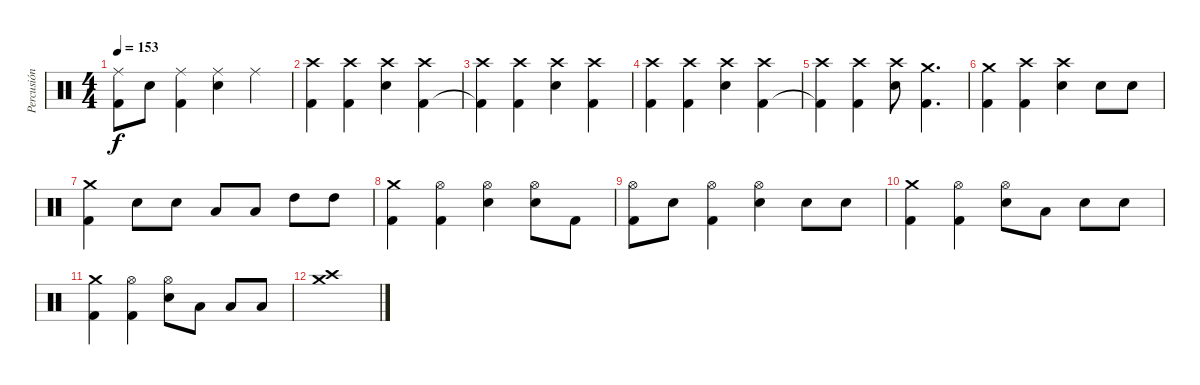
\track ("Percusión" "Percusión") {instrument percussion}
\staff {score}
\articulation defaults
\ts (4 4)
\tempo 153
\clef neutral
\ks c
("Ride (middle)" "Kick (hit) 2").8{dy f} "Electric Snare (hit)".8 ("Ride (middle)" "Kick (hit) 2").4 ("Ride (middle)" "Electric Snare (hit)").4 "Ride (middle)".4 |
("Kick (hit) 2" "Crash high (hit)").4 ("Kick (hit) 2" "Crash high (hit)").4 ("Electric Snare (hit)" "Crash high (hit)").4 ("Kick (hit) 2" "Crash high (hit)").4 |
("Kick (hit) 2"{t} "Crash high (hit)").4 ("Kick (hit) 2" "Crash high (hit)").4 ("Electric Snare (hit)" "Crash high (hit)").4 ("Kick (hit) 2" "Crash high (hit)").4 |
("Kick (hit) 2" "Crash high (hit)").4 ("Kick (hit) 2" "Crash high (hit)").4 ("Electric Snare (hit)" "Crash high (hit)").4 ("Kick (hit) 2" "Crash high (hit)").4 |
("Kick (hit) 2"{t} "Crash high (hit)").4 ("Kick (hit) 2" "Crash high (hit)").4 ("Electric Snare (hit)" "Crash high (hit)").8 ("Kick (hit) 2" "Crash medium (hit)").4{d} |
("Kick (hit) 2" "Crash medium (hit)").4 ("Kick (hit) 2" "Crash high (hit)").4 ("Electric Snare (hit)" "Crash high (hit)").4 "Electric Snare (hit)".8 "Electric Snare (hit)".8 |
("Kick (hit) 2" "Crash medium (hit)").4 "Electric Snare (hit)".8 "Electric Snare (hit)".8 "Low Tom (hit)".8 "Low Tom (hit)".8 "High Tom (hit)".8 "High Tom (hit)".8 |
("Crash medium (hit)" "Kick (hit) 2").4 ("Hi-Hat (open)" "Kick (hit) 2").4 ("Hi-Hat (open)" "Electric Snare (hit)").4 ("Hi-Hat (open)" "Electric Snare (hit)").8 "Kick (hit) 2".8 |
("Hi-Hat (open)" "Kick (hit) 2").8 "Electric Snare (hit)".8 ("Hi-Hat (open)" "Kick (hit) 2").4 ("Hi-Hat (open)" "Electric Snare (hit)").4 "Electric Snare (hit)".8 "Electric Snare (hit)".8 |
("Crash medium (hit)" "Kick (hit) 2").4 ("Hi-Hat (open)" "Kick (hit) 2").4 ("Hi-Hat (open)" "Electric Snare (hit)").8 "Low Floor Tom (hit)".8 "Electric Snare (hit)".8 "Electric Snare (hit)".8 |
("Crash medium (hit)" "Kick (hit) 2").4 ("Hi-Hat (open)" "Kick (hit) 2").4 ("Hi-Hat (open)" "Electric Snare (hit)").8 "Low Floor Tom (hit)".8 "Low Tom (hit)".8 "Low Tom (hit)".8 |
("Crash high (hit)" "Crash medium (hit)").1
